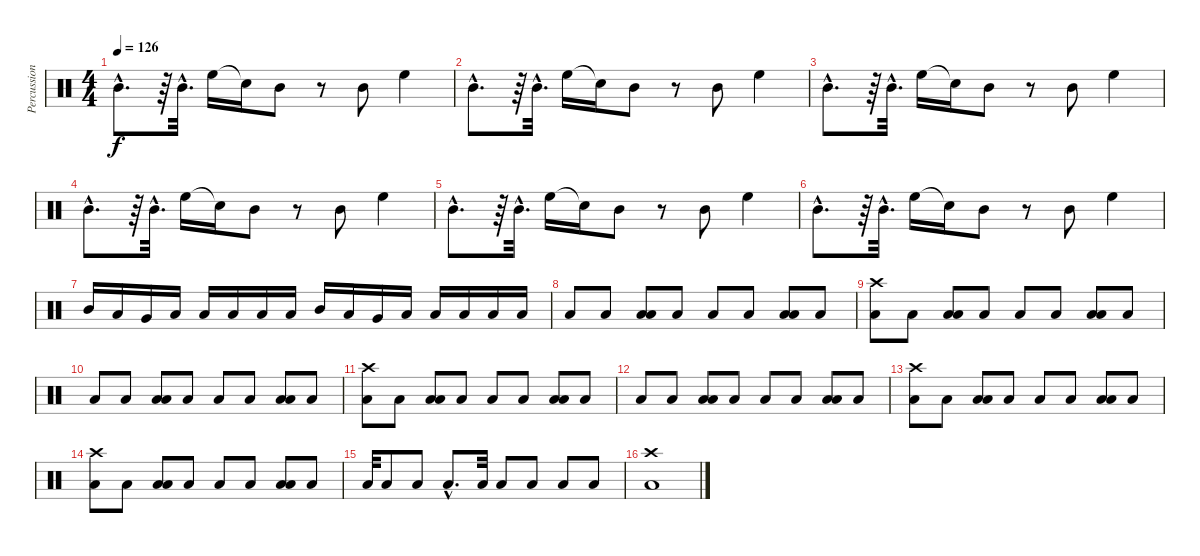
\track ("Percussion" "Percussion") {instrument percussion}
\staff {score}
\articulation defaults
\ts (4 4)
\tempo 126
\clef neutral
\ks c "Mid Tom (hit)"{hac}.8{d dy f}
r.64 "Mid Tom (hit)"{hac}.32{d} "High Floor Tom (hit)".16 "Snare (hit)"{t}.16 "Mid Tom (hit)".8 r.8 "Mid Tom (hit)".8 "High Floor Tom (hit)".4 |
"Mid Tom (hit)"{hac}.8{d} r.64 "Mid Tom (hit)"{hac}.32{d} "High Floor Tom (hit)".16 "Snare (hit)"{t}.16 "Mid Tom (hit)".8 r.8 "Mid Tom (hit)".8 "High Floor Tom (hit)".4 |
"Mid Tom (hit)"{hac}.8{d} r.64 "Mid Tom (hit)"{hac}.32{d} "High Floor Tom (hit)".16 "Snare (hit)"{t}.16 "Mid Tom (hit)".8 r.8 "Mid Tom (hit)".8 "High Floor Tom (hit)".4 |
"Mid Tom (hit)"{hac}.8{d} r.64 "Mid Tom (hit)"{hac}.32{d} "High Floor Tom (hit)".16 "Snare (hit)"{t}.16 "Mid Tom (hit)".8 r.8 "Mid Tom (hit)".8 "High Floor Tom (hit)".4 |
"Mid Tom (hit)"{hac}.8{d} r.64 "Mid Tom (hit)"{hac}.32{d} "High Floor Tom (hit)".16 "Snare (hit)"{t}.16 "Mid Tom (hit)".8 r.8 "Mid Tom (hit)".8 "High Floor Tom (hit)".4 |
"Mid Tom (hit)"{hac}.8{d} r.64 "Mid Tom (hit)"{hac}.32{d} "High Floor Tom (hit)".16 "Snare (hit)"{t}.16 "Mid Tom (hit)".8 r.8 "Mid Tom (hit)".8 "High Floor Tom (hit)".4 |
"Mid Tom (hit)".16 "Low Tom (hit)".16 "Very Low Tom (hit)".16 "Low Floor Tom (hit)".16 "Low Floor Tom (hit)".16 "Low Floor Tom (hit)".16 "Low Floor Tom (hit)".16 "Low Floor Tom (hit)".16 "Mid Tom (hit)".16 "Low Tom (hit)".16 "Very Low Tom (hit)".16 "Low Floor Tom (hit)".16 "Low Floor Tom (hit)".16 "Low Floor Tom (hit)".16 "Low Floor Tom (hit)".16 "Low Floor Tom (hit)".16 |
"Low Floor Tom (hit)".8 "Low Floor Tom (hit)".8 ("Low Tom (hit)" "Low Floor Tom (hit)").8 "Low Floor Tom (hit)".8 "Low Floor Tom (hit)".8 "Low Floor Tom (hit)".8 ("Low Tom (hit)" "Low Floor Tom (hit)").8 "Low Floor Tom (hit)".8 |
("Low Floor Tom (hit)" "Crash high (hit)").8 "Low Floor Tom (hit)".8 ("Low Tom (hit)" "Low Floor Tom (hit)").8 "Low Floor Tom (hit)".8 "Low Floor Tom (hit)".8 "Low Floor Tom (hit)".8 ("Low Tom (hit)" "Low Floor Tom (hit)").8 "Low Floor Tom (hit)".8 |
"Low Floor Tom (hit)".8 "Low Floor Tom (hit)".8 ("Low Tom (hit)" "Low Floor Tom (hit)").8 "Low Floor Tom (hit)".8 "Low Floor Tom (hit)".8 "Low Floor Tom (hit)".8 ("Low Tom (hit)" "Low Floor Tom (hit)").8 "Low Floor Tom (hit)".8 |
("Low Floor Tom (hit)" "Crash high (hit)").8 "Low Floor Tom (hit)".8 ("Low Tom (hit)" "Low Floor Tom (hit)").8 "Low Floor Tom (hit)".8 "Low Floor Tom (hit)".8 "Low Floor Tom (hit)".8 ("Low Tom (hit)" "Low Floor Tom (hit)").8 "Low Floor Tom (hit)".8 |
"Low Floor Tom (hit)".8 "Low Floor Tom (hit)".8 ("Low Tom (hit)" "Low Floor Tom (hit)").8 "Low Floor Tom (hit)".8 "Low Floor Tom (hit)".8 "Low Floor Tom (hit)".8 ("Low Tom (hit)" "Low Floor Tom (hit)").8 "Low Floor Tom (hit)".8 |
("Low Floor Tom (hit)" "Crash high (hit)").8 "Low Floor Tom (hit)".8 ("Low Tom (hit)" "Low Floor Tom (hit)").8 "Low Floor Tom (hit)".8 "Low Floor Tom (hit)".8 "Low Floor Tom (hit)".8 ("Low Tom (hit)" "Low Floor Tom (hit)").8 "Low Floor Tom (hit)".8 |
("Low Floor Tom (hit)" "Crash high (hit)").8 "Low Floor Tom (hit)".8 ("Low Tom (hit)" "Low Floor Tom (hit)").8 "Low Floor Tom (hit)".8 "Low Floor Tom (hit)".8 "Low Floor Tom (hit)".8 ("Low Tom (hit)" "Low Floor Tom (hit)").8 "Low Floor Tom (hit)".8 |
"Low Tom (hit)".32 "Low Tom (hit)".8 "Low Tom (hit)".8 "Low Tom (hit)"{hac}.8{d} "Low Tom (hit)".32 "Low Tom (hit)".8 "Low Tom (hit)".8 "Low Tom (hit)".8 "Low Tom (hit)".8 |
("Low Tom (hit)" "Crash high (hit)").1
